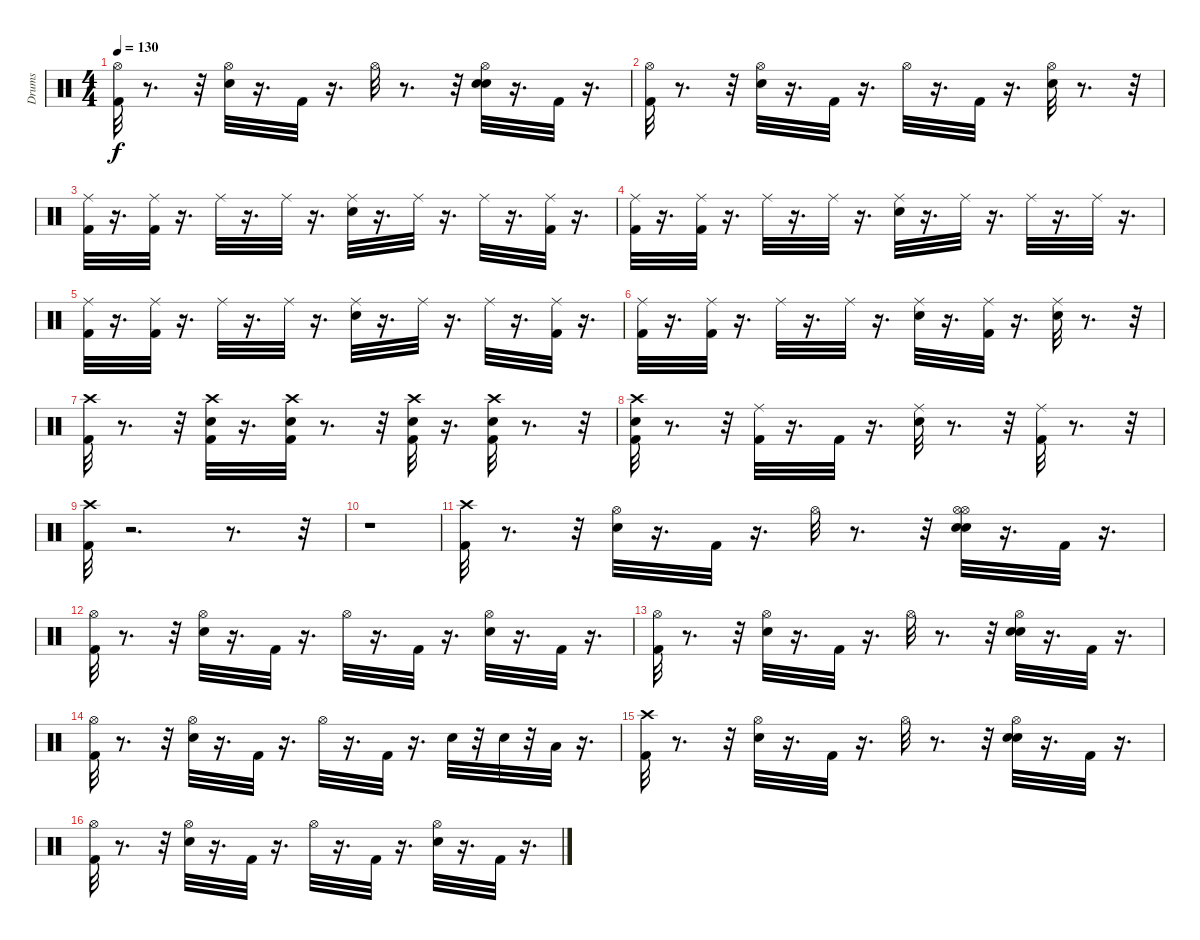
\track ("Drums" "Drums") {instrument percussion}
\staff {score}
\articulation defaults
\ts (4 4)
\tempo 130
\clef neutral
\ks c
("Hi-Hat (open)" "Kick (hit) 2").32{dy f} r.8{d} r.32 ("Snare (hit) 2" "Hi-Hat (open)").32 r.16{d} "Kick (hit) 2".32 r.16{d} "Hi-Hat (open)".32 r.8{d} r.32 ("Snare (hit) 2" "Snare (hit) 2" "Hi-Hat (open)").32 r.16{d} "Kick (hit) 2".32 r.16{d} |
("Hi-Hat (open)" "Kick (hit) 2").32 r.8{d} r.32 ("Snare (hit) 2" "Hi-Hat (open)").32 r.16{d} "Kick (hit) 2".32 r.16{d} "Hi-Hat (open)".32 r.16{d} "Kick (hit) 2".32 r.16{d} ("Snare (hit) 2" "Hi-Hat (open)").32 r.8{d} r.32 |
("Ride (middle)" "Kick (hit) 2").32 r.16{d} ("Kick (hit) 2" "Ride (middle)").32 r.16{d} "Ride (middle)".32 r.16{d} "Ride (middle)".32 r.16{d} ("Ride (middle)" "Snare (hit) 2").32 r.16{d} "Ride (middle)".32 r.16{d} "Ride (middle)".32 r.16{d} ("Ride (middle)" "Kick (hit) 2").32 r.16{d} |
("Kick (hit) 2" "Ride (middle)").32 r.16{d} ("Kick (hit) 2" "Ride (middle)").32 r.16{d} "Ride (middle)".32 r.16{d} "Ride (middle)".32 r.16{d} ("Ride (middle)" "Snare (hit) 2").32 r.16{d} "Ride (middle)".32 r.16{d} "Ride (middle)".32 r.16{d} "Ride (middle)".32 r.16{d} |
("Ride (middle)" "Kick (hit) 2").32 r.16{d} ("Kick (hit) 2" "Ride (middle)").32 r.16{d} "Ride (middle)".32 r.16{d} "Ride (middle)".32 r.16{d} ("Ride (middle)" "Snare (hit) 2").32 r.16{d} "Ride (middle)".32 r.16{d} "Ride (middle)".32 r.16{d} ("Kick (hit) 2" "Ride (middle)").32 r.16{d} |
("Ride (middle)" "Kick (hit) 2").32 r.16{d} ("Kick (hit) 2" "Ride (middle)").32 r.16{d} "Ride (middle)".32 r.16{d} "Ride (middle)".32 r.16{d} ("Ride (middle)" "Snare (hit) 2").32 r.16{d} ("Ride (middle)" "Kick (hit) 2").32 r.16{d} ("Ride (middle)" "Snare (hit) 2").32 r.8{d} r.32 |
("Kick (hit) 2" "Crash high (hit)").32 r.8{d} r.32 ("Kick (hit) 2" "Crash high (hit)" "Snare (hit) 2").32 r.16{d} ("Snare (hit) 2" "Kick (hit) 2" "Crash high (hit)").32 r.8{d} r.32 ("Crash high (hit)" "Kick (hit) 2" "Snare (hit) 2").32 r.16{d} ("Snare (hit) 2" "Crash high (hit)" "Kick (hit) 2").32 r.8{d} r.32 |
("Kick (hit) 2" "Snare (hit) 2" "Crash high (hit)").32 r.8{d} r.32 ("Kick (hit) 2" "Ride (middle)").32 r.16{d} "Kick (hit) 2".32 r.16{d} ("Snare (hit) 2" "Ride (middle)").32 r.8{d} r.32 ("Ride (middle)" "Kick (hit) 2").32 r.8{d} r.32 |
("Kick (hit) 2" "Crash high (hit)").32 r.2{d} r.8{d} r.32 |
r.1 |
("Kick (hit) 2" "Crash high (hit)").32 r.8{d} r.32 ("Snare (hit) 2" "Hi-Hat (open)").32 r.16{d} "Kick (hit) 2".32 r.16{d} "Hi-Hat (open)".32 r.8{d} r.32 ("Snare (hit) 2" "Hi-Hat (open)" "Snare (hit) 2" "Hi-Hat (open)").32 r.16{d} "Kick (hit) 2".32 r.16{d} |
("Kick (hit) 2" "Hi-Hat (open)").32 r.8{d} r.32 ("Snare (hit) 2" "Hi-Hat (open)").32 r.16{d} "Kick (hit) 2".32 r.16{d} "Hi-Hat (open)".32 r.16{d} "Kick (hit) 2".32 r.16{d} ("Snare (hit) 2" "Hi-Hat (open)").32 r.16{d} "Kick (hit) 2".32 r.16{d} |
("Hi-Hat (open)" "Kick (hit) 2").32 r.8{d} r.32 ("Snare (hit) 2" "Hi-Hat (open)").32 r.16{d} "Kick (hit) 2".32 r.16{d} "Hi-Hat (open)".32 r.8{d} r.32 ("Snare (hit) 2" "Hi-Hat (open)" "Snare (hit) 2").32 r.16{d} "Kick (hit) 2".32 r.16{d} |
("Kick (hit) 2" "Hi-Hat (open)").32 r.8{d} r.32 ("Snare (hit) 2" "Hi-Hat (open)").32 r.16{d} "Kick (hit) 2".32 r.16{d} "Hi-Hat (open)".32 r.16{d} "Kick (hit) 2".32 r.16{d} "Snare (hit) 2".32 r.32 "Snare (hit) 2".32 r.32 "Low Floor Tom (hit)".32 r.16{d} |
("Kick (hit) 2" "Crash high (hit)").32 r.8{d} r.32 ("Snare (hit) 2" "Hi-Hat (open)").32 r.16{d} "Kick (hit) 2".32 r.16{d} "Hi-Hat (open)".32 r.8{d} r.32 ("Snare (hit) 2" "Hi-Hat (open)" "Snare (hit) 2").32 r.16{d} "Kick (hit) 2".32 r.16{d} |
("Kick (hit) 2" "Hi-Hat (open)").32 r.8{d} r.32 ("Snare (hit) 2" "Hi-Hat (open)").32 r.16{d} "Kick (hit) 2".32 r.16{d} "Hi-Hat (open)".32 r.16{d} "Kick (hit) 2".32 r.16{d} ("Hi-Hat (open)" "Snare (hit) 2").32 r.16{d} "Kick (hit) 2".32 r.16{d}
